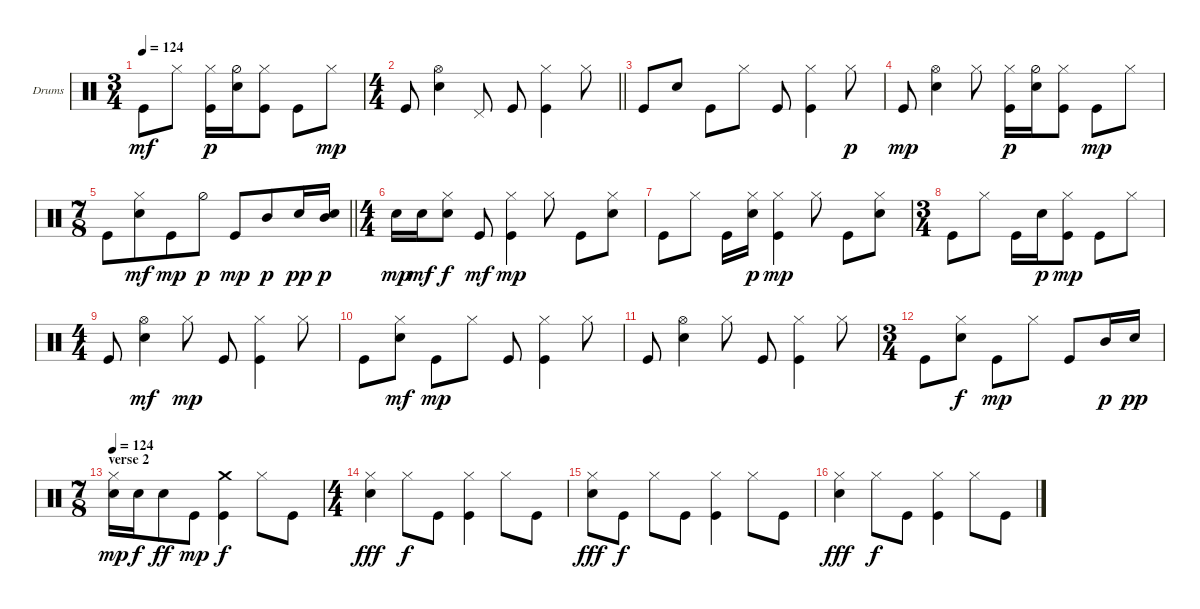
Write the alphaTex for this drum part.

\bracketExtendMode groupsimilarinstruments
\firstSystemTrackNameOrientation horizontal
\otherSystemsTrackNameOrientation horizontal
\track ("drums - john hinch" "Drums") {instrument percussion}
\staff {score}
\articulation defaults
\ts (3 4)
\tempo 124
\clef neutral
\scale
0.391473
\ks c "Kick (hit)".8{dy mf} "Hi-Hat (closed)".8
("Kick (hit)" "Hi-Hat (closed)").16{dy p} ("Snare (hit) 2" "Hi-Hat (half)").16 ("Kick (hit)" "Hi-Hat (closed)").8 "Kick (hit)".8 "Hi-Hat (closed)".8{dy mp} |
\ts (4 4)
\scale
0.391473
\barLineRight lightlight "Kick (hit)".8
("Snare (hit) 2" "Hi-Hat (open)").4 "Pedal Hi-Hat (hit)".8 "Kick (hit)".8 ("Kick (hit)" "Hi-Hat (closed)").4 "Hi-Hat (closed)".8 |
\scale
0.217054 "Kick (hit)".8 "Snare (hit) 2".8 "Kick (hit)".8 "Hi-Hat (closed)".8 "Kick (hit)".8 ("Kick (hit)" "Hi-Hat (closed)").4 "Hi-Hat (closed)".8{dy p} |
\scale
0.333333 "Kick (hit)".8{dy mp} ("Snare (hit) 2" "Hi-Hat (open)").4 "Hi-Hat (closed)".8 ("Kick (hit)" "Hi-Hat (closed)").16{dy p} ("Snare (hit) 2" "Hi-Hat (half)").16 ("Kick (hit)" "Hi-Hat (closed)").8 "Kick (hit)".8{dy mp} "Hi-Hat (closed)".8 |
\ts (7 8)
\scale
0.333333
\barLineRight lightlight "Kick (hit)".8
("Snare (hit) 2" "Hi-Hat (closed)").8{dy mf} "Kick (hit)".8{dy mp} "Hi-Hat (half)".8{dy p} "Kick (hit)".8{dy mp} "Mid Tom (hit)".8{dy p} "Snare (hit) 2".16{dy pp} ("Snare (hit) 2" "Mid Tom (hit)").16{dy p} |
\ts (4 4)
\scale
0.333333 "Snare (hit) 2".16{dy mp} "Snare (hit) 2".16{dy mf} ("Snare (hit) 2" "Hi-Hat (closed)").8{dy f} "Kick (hit)".8{dy mf} ("Kick (hit)" "Hi-Hat (closed)").4{dy mp} "Hi-Hat (closed)".8 "Kick (hit)".8 ("Snare (hit) 2" "Hi-Hat (closed)").8 |
\scale
0.217054 "Kick (hit)".8 "Hi-Hat (closed)".8 "Kick (hit)".16 ("Snare (hit) 2" "Hi-Hat (closed)").16{dy p} ("Kick (hit)" "Hi-Hat (closed)").4{dy mp} "Hi-Hat (closed)".8 "Kick (hit)".8 ("Snare (hit) 2" "Hi-Hat (closed)").8 |
\ts (3 4)
\scale
0.391473 "Kick (hit)".8 "Hi-Hat (closed)".8 "Kick (hit)".16 "Snare (hit) 2".16{dy p} ("Kick (hit)" "Hi-Hat (closed)").8{dy mp} "Kick (hit)".8 "Hi-Hat (closed)".8 |
\ts (4 4)
\scale
0.391473 "Kick (hit)".8 ("Snare (hit) 2" "Hi-Hat (open)").4{dy mf} "Hi-Hat (closed)".8{dy mp} "Kick (hit)".8 ("Hi-Hat (closed)" "Kick (hit)").4 "Hi-Hat (closed)".8 |
\scale
0.262911 "Kick (hit)".8 ("Snare (hit) 2" "Hi-Hat (closed)").8{dy mf} "Kick (hit)".8{dy mp} "Hi-Hat (closed)".8 "Kick (hit)".8 ("Hi-Hat (closed)" "Kick (hit)").4 "Hi-Hat (closed)".8 |
\scale
0.262911 "Kick (hit)".8 ("Snare (hit) 2" "Hi-Hat (open)").4 "Hi-Hat (closed)".8 "Kick (hit)".8 ("Kick (hit)" "Hi-Hat (closed)").4 "Hi-Hat (closed)".8 |
\ts (3 4)
\scale
0.474178 "Kick (hit)".8 ("Snare (hit) 2" "Hi-Hat (closed)").8{dy f} "Kick (hit)".8{dy mp} "Hi-Hat (closed)".8 "Kick (hit)".8 "Mid Tom (hit)".16{dy p} "Snare (hit) 2".16{dy pp} |
\ts (7 8)
\section ("" "verse 2")
\tempo 124
\scale
0.391473 ("Snare (hit) 2" "Hi-Hat (closed)").16{dy mp} "Snare (hit) 2".16{dy f} "Snare (hit) 2".8{dy ff} "Kick (hit)".8{dy mp} ("Kick (hit)" "Crash medium (hit)").4{dy f} "Hi-Hat (closed)".8 "Kick (hit)".8 |
\ts (4 4)
\scale
0.391473 ("Snare (hit) 2" "Hi-Hat (closed)").4{dy fff} "Hi-Hat (closed)".8{dy f} "Kick (hit)".8 ("Kick (hit)" "Hi-Hat (closed)").4 "Hi-Hat (closed)".8 "Kick (hit)".8 |
\scale
0.217054 ("Snare (hit) 2" "Hi-Hat (closed)").8{dy fff} "Kick (hit)".8{dy f} "Hi-Hat (closed)".8 "Kick (hit)".8 ("Hi-Hat (closed)" "Kick (hit)").4 "Hi-Hat (closed)".8 "Kick (hit)".8 |
\scale
0.333333 ("Snare (hit) 2" "Hi-Hat (closed)").4{dy fff} "Hi-Hat (closed)".8{dy f} "Kick (hit)".8 ("Kick (hit)" "Hi-Hat (closed)").4 "Hi-Hat (closed)".8 "Kick (hit)".8
